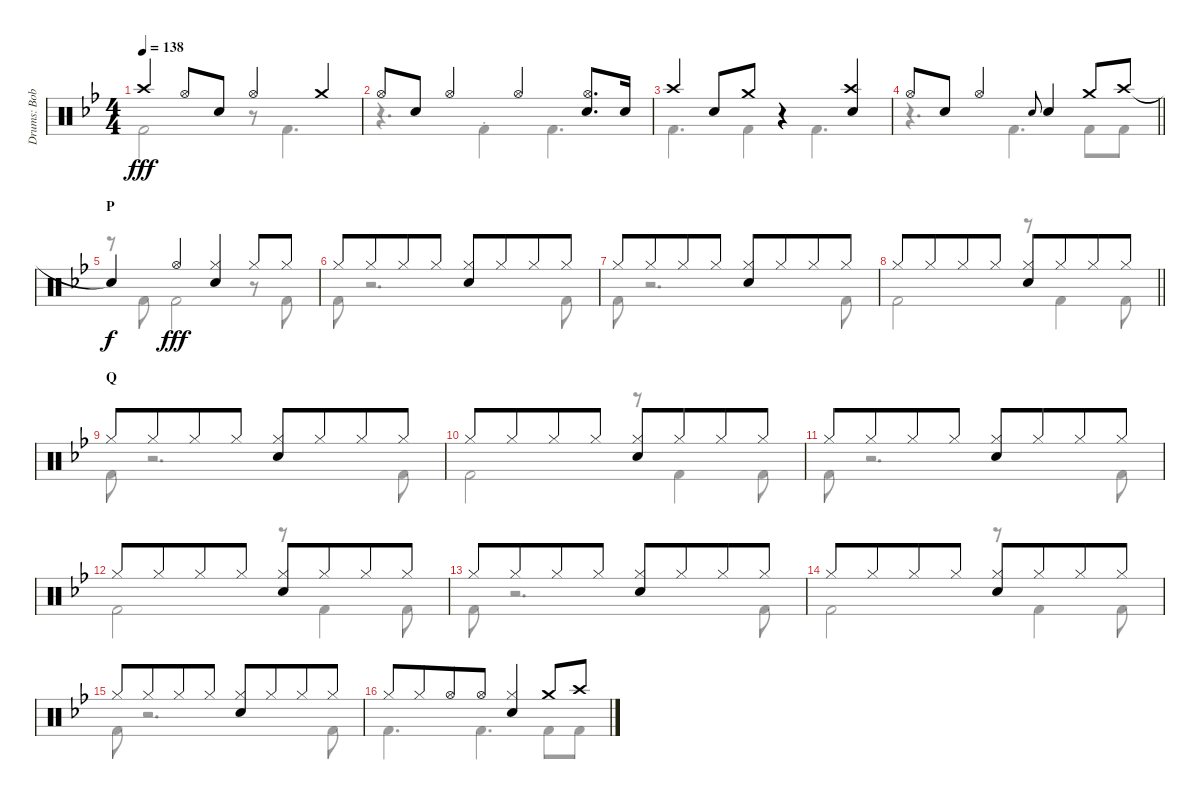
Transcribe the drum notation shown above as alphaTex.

\track ("Drums: Bobby" "Drums: Bob") {instrument percussion}
\staff {score}
\articulation defaults
\voice
\ts (4 4)
\tempo 138
\clef neutral
\ks bb "Crash high (hit)".4{dy fff} "Hi-Hat (open)".8 "Snare (hit) 2".8 "Hi-Hat (open)".4 "Crash medium (hit)".4
|
"Hi-Hat (open)".8 "Snare (hit) 2".8 "Hi-Hat (open)".4 "Hi-Hat (open)".4 ("Hi-Hat (open)" "Snare (hit) 2").8{d} "Snare (hit) 2".16 |
"Crash high (hit)".4 "Snare (hit) 2".8 "Crash medium (hit)".8 r.4 ("Crash high (hit)" "Snare (hit) 2").4 |
\barLineRight lightlight "Hi-Hat (open)".8 "Snare (hit) 2".8 "Hi-Hat (open)".4 "Electric Snare (hit)".8{gr onbeat} "Snare (hit) 2".4 "Crash medium (hit)".8 "Crash high (hit)".8
|
\section ("" "P")
"Snare (hit)"{t}.4{dy f} "Hi-Hat (open)".4{dy fff} ("Hi-Hat (closed)" "Snare (hit) 2").4 "Hi-Hat (closed)".8 "Hi-Hat (closed)".8 |
"Hi-Hat (closed)".8 "Hi-Hat (closed)".8{beam merge} "Hi-Hat (closed)".8 "Hi-Hat (closed)".8 ("Hi-Hat (closed)" "Snare (hit) 2").8 "Hi-Hat (closed)".8{beam merge} "Hi-Hat (closed)".8 "Hi-Hat (closed)".8 |
"Hi-Hat (closed)".8 "Hi-Hat (closed)".8{beam merge} "Hi-Hat (closed)".8 "Hi-Hat (closed)".8 ("Hi-Hat (closed)" "Snare (hit) 2").8 "Hi-Hat (closed)".8{beam merge} "Hi-Hat (closed)".8 "Hi-Hat (closed)".8 |
\barLineRight lightlight "Hi-Hat (closed)".8 "Hi-Hat (closed)".8{beam merge} "Hi-Hat (closed)".8 "Hi-Hat (closed)".8
("Hi-Hat (closed)" "Snare (hit) 2").8 "Hi-Hat (closed)".8{beam merge} "Hi-Hat (closed)".8 "Hi-Hat (closed)".8 |
\section ("" "Q")
"Hi-Hat (closed)".8 "Hi-Hat (closed)".8{beam merge} "Hi-Hat (closed)".8 "Hi-Hat (closed)".8 ("Hi-Hat (closed)" "Snare (hit) 2").8 "Hi-Hat (closed)".8{beam merge} "Hi-Hat (closed)".8 "Hi-Hat (closed)".8 |
"Hi-Hat (closed)".8 "Hi-Hat (closed)".8{beam merge} "Hi-Hat (closed)".8 "Hi-Hat (closed)".8 ("Hi-Hat (closed)" "Snare (hit) 2").8 "Hi-Hat (closed)".8{beam merge} "Hi-Hat (closed)".8 "Hi-Hat (closed)".8 |
"Hi-Hat (closed)".8 "Hi-Hat (closed)".8{beam merge} "Hi-Hat (closed)".8 "Hi-Hat (closed)".8 ("Hi-Hat (closed)" "Snare (hit) 2").8 "Hi-Hat (closed)".8{beam merge} "Hi-Hat (closed)".8 "Hi-Hat (closed)".8 |
"Hi-Hat (closed)".8 "Hi-Hat (closed)".8{beam merge} "Hi-Hat (closed)".8 "Hi-Hat (closed)".8 ("Hi-Hat (closed)" "Snare (hit) 2").8 "Hi-Hat (closed)".8{beam merge} "Hi-Hat (closed)".8 "Hi-Hat (closed)".8 |
"Hi-Hat (closed)".8 "Hi-Hat (closed)".8{beam merge} "Hi-Hat (closed)".8 "Hi-Hat (closed)".8 ("Hi-Hat (closed)" "Snare (hit) 2").8 "Hi-Hat (closed)".8{beam merge} "Hi-Hat (closed)".8 "Hi-Hat (closed)".8 |
"Hi-Hat (closed)".8 "Hi-Hat (closed)".8{beam merge} "Hi-Hat (closed)".8 "Hi-Hat (closed)".8 ("Hi-Hat (closed)" "Snare (hit) 2").8 "Hi-Hat (closed)".8{beam merge} "Hi-Hat (closed)".8 "Hi-Hat (closed)".8 |
"Hi-Hat (closed)".8 "Hi-Hat (closed)".8{beam merge} "Hi-Hat (closed)".8 "Hi-Hat (closed)".8 ("Hi-Hat (closed)" "Snare (hit) 2").8 "Hi-Hat (closed)".8{beam merge} "Hi-Hat (closed)".8 "Hi-Hat (closed)".8 |
"Hi-Hat (closed)".8 "Hi-Hat (closed)".8{beam merge} "Hi-Hat (open)".8 "Hi-Hat (open)".8 ("Hi-Hat (closed)" "Snare (hit) 2").4 "Crash medium (hit)".8{beam merge} "Crash high (hit)".8
\voice
\clef neutral
\ottava regular
\simile none
\ks bb "Kick (hit) 2".2{dy fff}
r.8 "Kick (hit) 2".4{d} |
r.4{d} "Kick (hit) 2"{st}.4 "Kick (hit) 2".4{d} |
"Kick (hit) 2".4{d} "Kick (hit) 2".4 "Kick (hit) 2".4{d} |
\barLineRight lightlight
r.4{d} "Kick (hit) 2".4{d} "Kick (hit) 2".8 "Kick (hit) 2".8 |
r.8 "Kick (hit) 2".8 "Kick (hit) 2".2 r.8 "Kick (hit) 2".8 |
"Kick (hit) 2".8 r.2{d} "Kick (hit) 2".8 |
"Kick (hit) 2".8 r.2{d} "Kick (hit) 2".8 |
\barLineRight lightlight "Kick (hit) 2".2
r.8 "Kick (hit) 2".4 "Kick (hit) 2".8 |
"Kick (hit) 2".8 r.2{d} "Kick (hit) 2".8 |
"Kick (hit) 2".2 r.8 "Kick (hit) 2".4 "Kick (hit) 2".8 |
"Kick (hit) 2".8 r.2{d} "Kick (hit) 2".8 |
"Kick (hit) 2".2 r.8 "Kick (hit) 2".4 "Kick (hit) 2".8 |
"Kick (hit) 2".8 r.2{d} "Kick (hit) 2".8 |
"Kick (hit) 2".2 r.8 "Kick (hit) 2".4 "Kick (hit) 2".8 |
"Kick (hit) 2".8 r.2{d} "Kick (hit) 2".8 |
"Kick (hit) 2".4{d} "Kick (hit) 2".4{d} "Kick (hit) 2".8 "Kick (hit) 2".8
